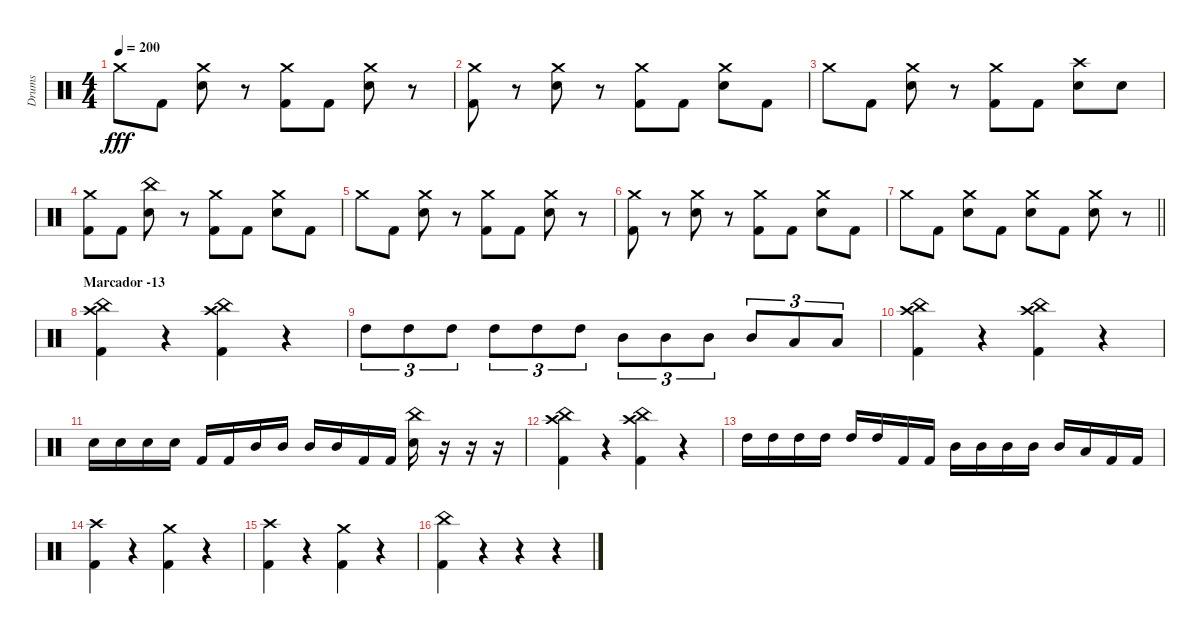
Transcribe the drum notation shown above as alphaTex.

\track ("Drums" "Drums") {instrument percussion}
\staff {score}
\articulation defaults
\ts (4 4)
\tempo 200
\clef neutral
\ks c "Crash medium (hit)".8{dy fff} "Kick (hit) 2".8
("Crash medium (hit)" "Electric Snare (hit)").8 r.8 ("Crash medium (hit)" "Kick (hit) 2").8 "Kick (hit) 2".8 ("Crash medium (hit)" "Electric Snare (hit)").8 r.8 |
("Crash medium (hit)" "Kick (hit) 2").8 r.8 ("Crash medium (hit)" "Electric Snare (hit)").8 r.8 ("Crash medium (hit)" "Kick (hit) 2").8 "Kick (hit) 2".8 ("Crash medium (hit)" "Electric Snare (hit)").8 "Kick (hit) 2".8 |
"Crash medium (hit)".8 "Kick (hit) 2".8 ("Crash medium (hit)" "Electric Snare (hit)").8 r.8 ("Crash medium (hit)" "Kick (hit) 2").8 "Kick (hit) 2".8 ("Crash high (hit)" "Electric Snare (hit)").8 "Electric Snare (hit)".8 |
("Crash medium (hit)" "Kick (hit) 2").8 "Kick (hit) 2".8 ("China (hit)" "Electric Snare (hit)").8 r.8 ("Crash medium (hit)" "Kick (hit) 2").8 "Kick (hit) 2".8 ("Crash medium (hit)" "Electric Snare (hit)").8 "Kick (hit) 2".8 |
"Crash medium (hit)".8 "Kick (hit) 2".8 ("Crash medium (hit)" "Electric Snare (hit)").8 r.8 ("Crash medium (hit)" "Kick (hit) 2").8 "Kick (hit) 2".8 ("Crash medium (hit)" "Electric Snare (hit)").8 r.8 |
("Crash medium (hit)" "Kick (hit) 2").8 r.8 ("Crash medium (hit)" "Electric Snare (hit)").8 r.8 ("Crash medium (hit)" "Kick (hit) 2").8 "Kick (hit) 2".8 ("Crash medium (hit)" "Electric Snare (hit)").8 "Kick (hit) 2".8 |
\barLineRight lightlight "Crash medium (hit)".8 "Kick (hit) 2".8
("Crash medium (hit)" "Electric Snare (hit)").8 "Kick (hit) 2".8 ("Crash medium (hit)" "Electric Snare (hit)").8 "Kick (hit) 2".8 ("Crash medium (hit)" "Electric Snare (hit)").8 r.8 |
\section ("" "Marcador -13")
("Crash high (hit)" "China (hit)" "Kick (hit) 2").4 r.4 ("Crash high (hit)" "China (hit)" "Kick (hit) 2").4 r.4 |
"High Tom (hit)".8{tu (3 2)} "High Tom (hit)".8{tu (3 2)} "High Tom (hit)".8{tu (3 2)} "High Tom (hit)".8{tu (3 2)} "High Tom (hit)".8{tu (3 2)} "High Tom (hit)".8{tu (3 2)} "Mid Tom (hit)".8{tu (3 2)} "Mid Tom (hit)".8{tu (3 2)} "Mid Tom (hit)".8{tu (3 2)} "Mid Tom (hit)".8{tu (3 2)} "Low Tom (hit)".8{tu (3 2)} "Low Tom (hit)".8{tu (3 2)} |
("Crash high (hit)" "China (hit)" "Kick (hit) 2").4 r.4 ("Crash high (hit)" "China (hit)" "Kick (hit) 2").4 r.4 |
"Electric Snare (hit)".16 "Electric Snare (hit)".16 "Electric Snare (hit)".16 "Electric Snare (hit)".16 "Kick (hit) 2".16 "Kick (hit) 2".16 "Mid Tom (hit)".16 "Mid Tom (hit)".16 "Mid Tom (hit)".16 "Mid Tom (hit)".16 "Kick (hit) 2".16 "Kick (hit) 2".16 ("China (hit)" "Electric Snare (hit)").16 r.16 r.16 r.16 |
("Crash high (hit)" "China (hit)" "Kick (hit) 2").4 r.4 ("Crash high (hit)" "China (hit)" "Kick (hit) 2").4 r.4 |
"High Tom (hit)".16 "High Tom (hit)".16 "High Tom (hit)".16 "High Tom (hit)".16 "High Tom (hit)".16 "High Tom (hit)".16 "Kick (hit) 2".16 "Kick (hit) 2".16 "Mid Tom (hit)".16 "Mid Tom (hit)".16 "Mid Tom (hit)".16 "Mid Tom (hit)".16 "Mid Tom (hit)".16 "Low Tom (hit)".16 "Kick (hit) 2".16 "Kick (hit) 2".16 |
("Crash high (hit)" "Kick (hit) 2").4 r.4 ("Crash medium (hit)" "Kick (hit) 2").4 r.4 |
("Crash high (hit)" "Kick (hit) 2").4 r.4 ("Crash medium (hit)" "Kick (hit) 2").4 r.4 |
("China (hit)" "Kick (hit) 2").4 r.4 r.4 r.4
